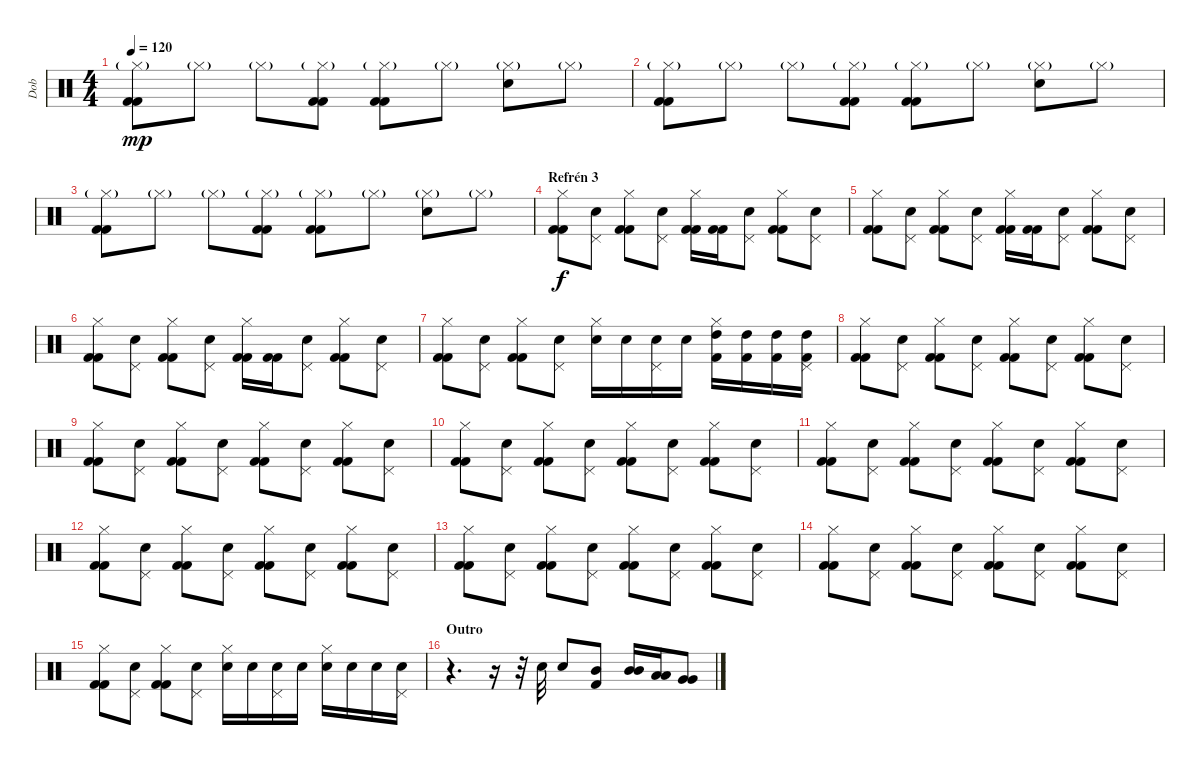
\track ("Dob" "Dob") {instrument percussion}
\staff {score}
\articulation defaults
\ts (4 4)
\tempo 120
\clef neutral
\ks c
("Hi-Hat (closed)"{g} "Kick (hit) 2" "Kick (hit) 2").8{dy mp} "Hi-Hat (closed)"{g}.8 "Hi-Hat (closed)"{g}.8 ("Hi-Hat (closed)"{g} "Kick (hit) 2" "Kick (hit) 2").8 ("Hi-Hat (closed)"{g} "Kick (hit) 2" "Kick (hit) 2").8 "Hi-Hat (closed)"{g}.8 ("Hi-Hat (closed)"{g} "Snare (hit) 2").8 "Hi-Hat (closed)"{g}.8 |
("Hi-Hat (closed)"{g} "Kick (hit) 2" "Kick (hit) 2").8 "Hi-Hat (closed)"{g}.8 "Hi-Hat (closed)"{g}.8 ("Hi-Hat (closed)"{g} "Kick (hit) 2" "Kick (hit) 2").8 ("Hi-Hat (closed)"{g} "Kick (hit) 2" "Kick (hit) 2").8 "Hi-Hat (closed)"{g}.8 ("Hi-Hat (closed)"{g} "Snare (hit) 2").8 "Hi-Hat (closed)"{g}.8 |
("Hi-Hat (closed)"{g} "Kick (hit) 2" "Kick (hit) 2").8 "Hi-Hat (closed)"{g}.8 "Hi-Hat (closed)"{g}.8 ("Hi-Hat (closed)"{g} "Kick (hit) 2" "Kick (hit) 2").8 ("Hi-Hat (closed)"{g} "Kick (hit) 2" "Kick (hit) 2").8 "Hi-Hat (closed)"{g}.8 ("Hi-Hat (closed)"{g} "Snare (hit) 2").8 "Hi-Hat (closed)"{g}.8 |
\section ("" "Refrén 3")
("Hi-Hat (closed)" "Kick (hit) 2" "Kick (hit) 2").8{dy f} ("Pedal Hi-Hat (hit)" "Snare (hit) 2").8 ("Hi-Hat (closed)" "Kick (hit) 2" "Kick (hit) 2").8 ("Pedal Hi-Hat (hit)" "Snare (hit) 2").8 ("Hi-Hat (closed)" "Kick (hit) 2" "Kick (hit) 2").16 ("Kick (hit) 2" "Kick (hit) 2").16 ("Pedal Hi-Hat (hit)" "Snare (hit) 2").8 ("Hi-Hat (closed)" "Kick (hit) 2" "Kick (hit) 2").8 ("Pedal Hi-Hat (hit)" "Snare (hit) 2").8 |
("Hi-Hat (closed)" "Kick (hit) 2" "Kick (hit) 2").8 ("Pedal Hi-Hat (hit)" "Snare (hit) 2").8 ("Hi-Hat (closed)" "Kick (hit) 2" "Kick (hit) 2").8 ("Pedal Hi-Hat (hit)" "Snare (hit) 2").8 ("Hi-Hat (closed)" "Kick (hit) 2" "Kick (hit) 2").16 ("Kick (hit) 2" "Kick (hit) 2").16 ("Pedal Hi-Hat (hit)" "Snare (hit) 2").8 ("Hi-Hat (closed)" "Kick (hit) 2" "Kick (hit) 2").8 ("Pedal Hi-Hat (hit)" "Snare (hit) 2").8 |
("Hi-Hat (closed)" "Kick (hit) 2" "Kick (hit) 2").8 ("Pedal Hi-Hat (hit)" "Snare (hit) 2").8 ("Hi-Hat (closed)" "Kick (hit) 2" "Kick (hit) 2").8 ("Pedal Hi-Hat (hit)" "Snare (hit) 2").8 ("Hi-Hat (closed)" "Kick (hit) 2" "Kick (hit) 2").16 ("Kick (hit) 2" "Kick (hit) 2").16 ("Pedal Hi-Hat (hit)" "Snare (hit) 2").8 ("Hi-Hat (closed)" "Kick (hit) 2" "Kick (hit) 2").8 ("Pedal Hi-Hat (hit)" "Snare (hit) 2").8 |
("Hi-Hat (closed)" "Kick (hit) 2" "Kick (hit) 2").8 ("Pedal Hi-Hat (hit)" "Snare (hit) 2").8 ("Hi-Hat (closed)" "Kick (hit) 2" "Kick (hit) 2").8 ("Pedal Hi-Hat (hit)" "Snare (hit) 2").8 ("Hi-Hat (closed)" "Snare (hit) 2").16 "Snare (hit) 2".16 ("Pedal Hi-Hat (hit)" "Snare (hit) 2").16 "Snare (hit) 2".16 ("Hi-Hat (closed)" "Kick (hit) 2" "High Tom (hit)").16 ("Kick (hit) 2" "High Tom (hit)").16 ("Kick (hit) 2" "High Tom (hit)").16 ("Pedal Hi-Hat (hit)" "Kick (hit) 2" "High Tom (hit)").16 |
("Hi-Hat (closed)" "Kick (hit) 2" "Kick (hit) 2").8 ("Pedal Hi-Hat (hit)" "Snare (hit) 2").8 ("Hi-Hat (closed)" "Kick (hit) 2" "Kick (hit) 2").8 ("Pedal Hi-Hat (hit)" "Snare (hit) 2").8 ("Hi-Hat (closed)" "Kick (hit) 2" "Kick (hit) 2").8 ("Pedal Hi-Hat (hit)" "Snare (hit) 2").8 ("Hi-Hat (closed)" "Kick (hit) 2" "Kick (hit) 2").8 ("Pedal Hi-Hat (hit)" "Snare (hit) 2").8 |
("Hi-Hat (closed)" "Kick (hit) 2" "Kick (hit) 2").8 ("Pedal Hi-Hat (hit)" "Snare (hit) 2").8 ("Hi-Hat (closed)" "Kick (hit) 2" "Kick (hit) 2").8 ("Pedal Hi-Hat (hit)" "Snare (hit) 2").8 ("Hi-Hat (closed)" "Kick (hit) 2" "Kick (hit) 2").8 ("Pedal Hi-Hat (hit)" "Snare (hit) 2").8 ("Hi-Hat (closed)" "Kick (hit) 2" "Kick (hit) 2").8 ("Pedal Hi-Hat (hit)" "Snare (hit) 2").8 |
("Hi-Hat (closed)" "Kick (hit) 2" "Kick (hit) 2").8 ("Pedal Hi-Hat (hit)" "Snare (hit) 2").8 ("Hi-Hat (closed)" "Kick (hit) 2" "Kick (hit) 2").8 ("Pedal Hi-Hat (hit)" "Snare (hit) 2").8 ("Hi-Hat (closed)" "Kick (hit) 2" "Kick (hit) 2").8 ("Pedal Hi-Hat (hit)" "Snare (hit) 2").8 ("Hi-Hat (closed)" "Kick (hit) 2" "Kick (hit) 2").8 ("Pedal Hi-Hat (hit)" "Snare (hit) 2").8 |
("Hi-Hat (closed)" "Kick (hit) 2" "Kick (hit) 2").8 ("Pedal Hi-Hat (hit)" "Snare (hit) 2").8 ("Hi-Hat (closed)" "Kick (hit) 2" "Kick (hit) 2").8 ("Pedal Hi-Hat (hit)" "Snare (hit) 2").8 ("Hi-Hat (closed)" "Kick (hit) 2" "Kick (hit) 2").8 ("Pedal Hi-Hat (hit)" "Snare (hit) 2").8 ("Hi-Hat (closed)" "Kick (hit) 2" "Kick (hit) 2").8 ("Pedal Hi-Hat (hit)" "Snare (hit) 2").8 |
("Hi-Hat (closed)" "Kick (hit) 2" "Kick (hit) 2").8 ("Pedal Hi-Hat (hit)" "Snare (hit) 2").8 ("Hi-Hat (closed)" "Kick (hit) 2" "Kick (hit) 2").8 ("Pedal Hi-Hat (hit)" "Snare (hit) 2").8 ("Hi-Hat (closed)" "Kick (hit) 2" "Kick (hit) 2").8 ("Pedal Hi-Hat (hit)" "Snare (hit) 2").8 ("Hi-Hat (closed)" "Kick (hit) 2" "Kick (hit) 2").8 ("Pedal Hi-Hat (hit)" "Snare (hit) 2").8 |
("Hi-Hat (closed)" "Kick (hit) 2" "Kick (hit) 2").8 ("Pedal Hi-Hat (hit)" "Snare (hit) 2").8 ("Hi-Hat (closed)" "Kick (hit) 2" "Kick (hit) 2").8 ("Pedal Hi-Hat (hit)" "Snare (hit) 2").8 ("Hi-Hat (closed)" "Kick (hit) 2" "Kick (hit) 2").8 ("Pedal Hi-Hat (hit)" "Snare (hit) 2").8 ("Hi-Hat (closed)" "Kick (hit) 2" "Kick (hit) 2").8 ("Pedal Hi-Hat (hit)" "Snare (hit) 2").8 |
("Hi-Hat (closed)" "Kick (hit) 2" "Kick (hit) 2").8 ("Pedal Hi-Hat (hit)" "Snare (hit) 2").8 ("Hi-Hat (closed)" "Kick (hit) 2" "Kick (hit) 2").8 ("Pedal Hi-Hat (hit)" "Snare (hit) 2").8 ("Hi-Hat (closed)" "Kick (hit) 2" "Kick (hit) 2").8 ("Pedal Hi-Hat (hit)" "Snare (hit) 2").8 ("Hi-Hat (closed)" "Kick (hit) 2" "Kick (hit) 2").8 ("Pedal Hi-Hat (hit)" "Snare (hit) 2").8 |
("Hi-Hat (closed)" "Kick (hit) 2" "Kick (hit) 2").8 ("Pedal Hi-Hat (hit)" "Snare (hit) 2").8 ("Hi-Hat (closed)" "Kick (hit) 2" "Kick (hit) 2").8 ("Pedal Hi-Hat (hit)" "Snare (hit) 2").8 ("Hi-Hat (closed)" "Snare (hit) 2").16 "Snare (hit) 2".16 ("Pedal Hi-Hat (hit)" "Snare (hit) 2").16 "Snare (hit) 2".16 ("Hi-Hat (closed)" "Snare (hit) 2").16 "Snare (hit) 2".16 "Snare (hit) 2".16 ("Pedal Hi-Hat (hit)" "Snare (hit) 2").16 |
\section ("" "Outro")
r.4{d} r.16 r.32 "Snare (hit) 2".32 "Snare (hit) 2".8 ("Kick (hit) 2" "Mid Tom (hit)").8 ("Mid Tom (hit)" "Mid Tom (hit)").16 ("Low Tom (hit)" "Low Tom (hit)").16 ("Very Low Tom (hit)" "Very Low Tom (hit)").8
